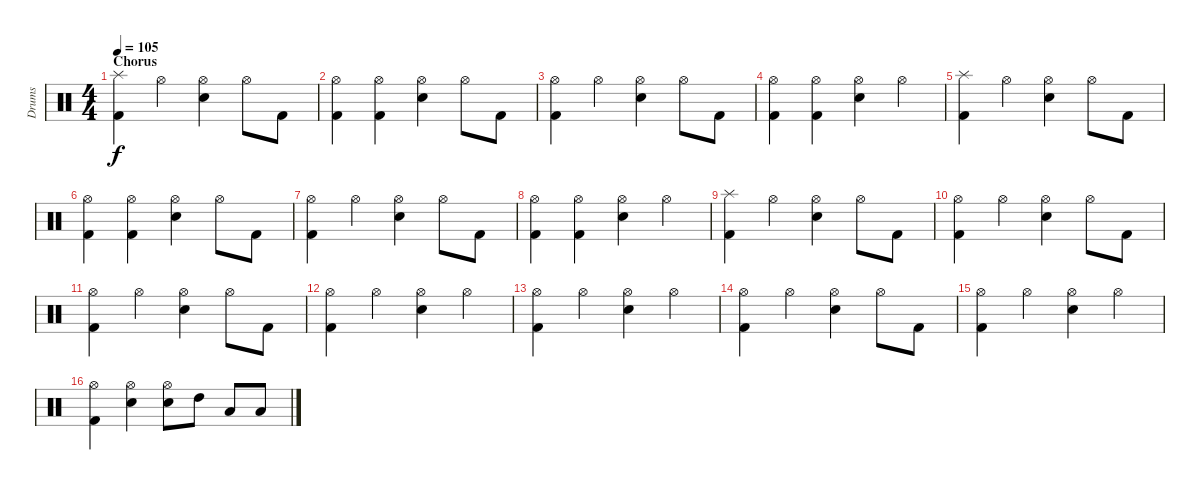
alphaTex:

\track ("Drums" "Drums") {instrument percussion}
\staff {score}
\articulation defaults
\ts (4 4)
\section ("" "Chorus")
\tempo 105
\clef neutral
\ks c
("Splash (hit)" "Kick (hit) 2").4{dy f} "Hi-Hat (open)".4 ("Hi-Hat (open)" "Electric Snare (hit)").4 "Hi-Hat (open)".8 "Kick (hit) 2".8 |
("Hi-Hat (open)" "Kick (hit) 2").4 ("Hi-Hat (open)" "Kick (hit) 2").4 ("Hi-Hat (open)" "Electric Snare (hit)").4 "Hi-Hat (open)".8 "Kick (hit) 2".8 |
("Hi-Hat (open)" "Kick (hit) 2").4 "Hi-Hat (open)".4 ("Hi-Hat (open)" "Electric Snare (hit)").4 "Hi-Hat (open)".8 "Kick (hit) 2".8 |
("Hi-Hat (open)" "Kick (hit) 2").4 ("Hi-Hat (open)" "Kick (hit) 2").4 ("Hi-Hat (open)" "Electric Snare (hit)").4 "Hi-Hat (open)".4 |
("Splash (hit)" "Kick (hit) 2").4 "Hi-Hat (open)".4 ("Hi-Hat (open)" "Electric Snare (hit)").4 "Hi-Hat (open)".8 "Kick (hit) 2".8 |
("Hi-Hat (open)" "Kick (hit) 2").4 ("Hi-Hat (open)" "Kick (hit) 2").4 ("Hi-Hat (open)" "Electric Snare (hit)").4 "Hi-Hat (open)".8 "Kick (hit) 2".8 |
("Hi-Hat (open)" "Kick (hit) 2").4 "Hi-Hat (open)".4 ("Hi-Hat (open)" "Electric Snare (hit)").4 "Hi-Hat (open)".8 "Kick (hit) 2".8 |
("Hi-Hat (open)" "Kick (hit) 2").4 ("Hi-Hat (open)" "Kick (hit) 2").4 ("Hi-Hat (open)" "Electric Snare (hit)").4 "Hi-Hat (open)".4 |
("Splash (hit)" "Kick (hit) 2").4 "Hi-Hat (open)".4 ("Hi-Hat (open)" "Electric Snare (hit)").4 "Hi-Hat (open)".8 "Kick (hit) 2".8 |
("Hi-Hat (open)" "Kick (hit) 2").4 "Hi-Hat (open)".4 ("Hi-Hat (open)" "Electric Snare (hit)").4 "Hi-Hat (open)".8 "Kick (hit) 2".8 |
("Hi-Hat (open)" "Kick (hit) 2").4 "Hi-Hat (open)".4 ("Hi-Hat (open)" "Electric Snare (hit)").4 "Hi-Hat (open)".8 "Kick (hit) 2".8 |
("Hi-Hat (open)" "Kick (hit) 2").4 "Hi-Hat (open)".4 ("Hi-Hat (open)" "Electric Snare (hit)").4 "Hi-Hat (open)".4 |
("Hi-Hat (open)" "Kick (hit) 2").4 "Hi-Hat (open)".4 ("Hi-Hat (open)" "Electric Snare (hit)").4 "Hi-Hat (open)".4 |
("Hi-Hat (open)" "Kick (hit) 2").4 "Hi-Hat (open)".4 ("Hi-Hat (open)" "Electric Snare (hit)").4 "Hi-Hat (open)".8 "Kick (hit) 2".8 |
("Hi-Hat (open)" "Kick (hit) 2").4 "Hi-Hat (open)".4 ("Hi-Hat (open)" "Electric Snare (hit)").4 "Hi-Hat (open)".4 |
("Hi-Hat (open)" "Kick (hit) 2").4 ("Hi-Hat (open)" "Electric Snare (hit)").4 ("Hi-Hat (open)" "Electric Snare (hit)").8 "High Tom (hit)".8 "Low Tom (hit)".8 "Low Floor Tom (hit)".8
